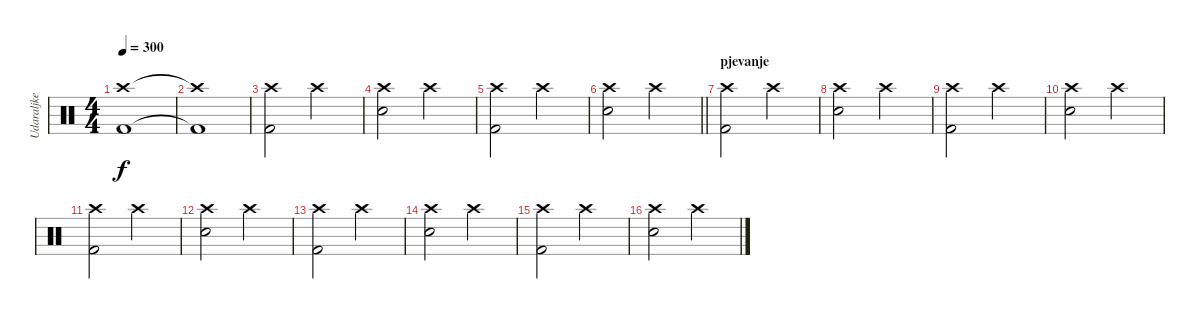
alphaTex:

\track ("Udaraljke" "Udaraljke") {instrument percussion}
\staff {score}
\articulation defaults
\ts (4 4)
\tempo 300
\clef neutral
\ks c
("Crash high (hit)" "Kick (hit) 2").1{dy f} |
("Crash high (hit)"{t} "Kick (hit) 2"{t}).1 |
("Crash high (hit)" "Kick (hit) 2").2 "Crash high (hit)".2 |
("Crash high (hit)" "Electric Snare (hit)").2 "Crash high (hit)".2 |
("Crash high (hit)" "Kick (hit) 2").2 "Crash high (hit)".2 |
\barLineRight lightlight
("Crash high (hit)" "Electric Snare (hit)").2 "Crash high (hit)".2 |
\section ("" "pjevanje")
("Crash high (hit)" "Kick (hit) 2").2 "Crash high (hit)".2 |
("Crash high (hit)" "Electric Snare (hit)").2 "Crash high (hit)".2 |
("Crash high (hit)" "Kick (hit) 2").2 "Crash high (hit)".2 |
("Crash high (hit)" "Electric Snare (hit)").2 "Crash high (hit)".2 |
("Crash high (hit)" "Kick (hit) 2").2 "Crash high (hit)".2 |
("Crash high (hit)" "Electric Snare (hit)").2 "Crash high (hit)".2 |
("Crash high (hit)" "Kick (hit) 2").2 "Crash high (hit)".2 |
("Crash high (hit)" "Electric Snare (hit)").2 "Crash high (hit)".2 |
("Crash high (hit)" "Kick (hit) 2").2 "Crash high (hit)".2 |
("Crash high (hit)" "Electric Snare (hit)").2 "Crash high (hit)".2
